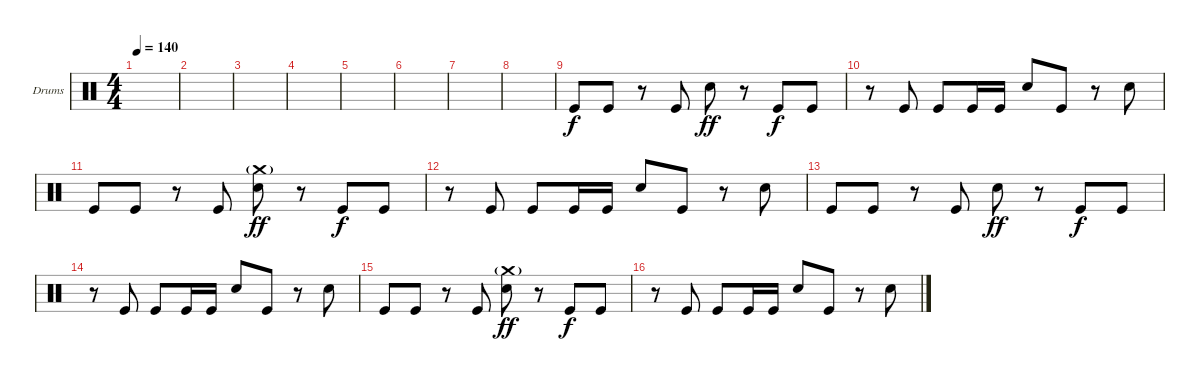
\defaultSystemsLayout 4
\bracketExtendMode groupsimilarinstruments
\firstSystemTrackNameOrientation horizontal
\otherSystemsTrackNameOrientation horizontal
\track ("Drumkit" "Drums") {instrument percussion}
\staff {score}
\articulation defaults
\ts (4 4)
\tempo 140
\clef neutral
\ks c
|
|
|
|
|
|
|
|
"Kick (hit)".8 "Kick (hit)".8 r.8 "Kick (hit)".8 "Snare (hit) 2".8{dy ff} r.8 "Kick (hit)".8{dy f} "Kick (hit)".8 |
r.8 "Kick (hit)".8 "Kick (hit)".8 "Kick (hit)".16 "Kick (hit)".16 "Snare (hit) 2".8 "Kick (hit)".8 r.8 "Snare (hit) 2".8 |
"Kick (hit)".8 "Kick (hit)".8 r.8 "Kick (hit)".8 ("Crash medium (hit)"{g} "Snare (hit) 2").8{dy ff} r.8 "Kick (hit)".8{dy f} "Kick (hit)".8 |
r.8 "Kick (hit)".8 "Kick (hit)".8 "Kick (hit)".16 "Kick (hit)".16 "Snare (hit) 2".8 "Kick (hit)".8 r.8 "Snare (hit) 2".8 |
"Kick (hit)".8 "Kick (hit)".8 r.8 "Kick (hit)".8 "Snare (hit) 2".8{dy ff} r.8 "Kick (hit)".8{dy f} "Kick (hit)".8 |
r.8 "Kick (hit)".8 "Kick (hit)".8 "Kick (hit)".16 "Kick (hit)".16 "Snare (hit) 2".8 "Kick (hit)".8 r.8 "Snare (hit) 2".8 |
"Kick (hit)".8 "Kick (hit)".8 r.8 "Kick (hit)".8 ("Crash medium (hit)"{g} "Snare (hit) 2").8{dy ff} r.8 "Kick (hit)".8{dy f} "Kick (hit)".8 |
r.8 "Kick (hit)".8 "Kick (hit)".8 "Kick (hit)".16 "Kick (hit)".16 "Snare (hit) 2".8 "Kick (hit)".8 r.8 "Snare (hit) 2".8
